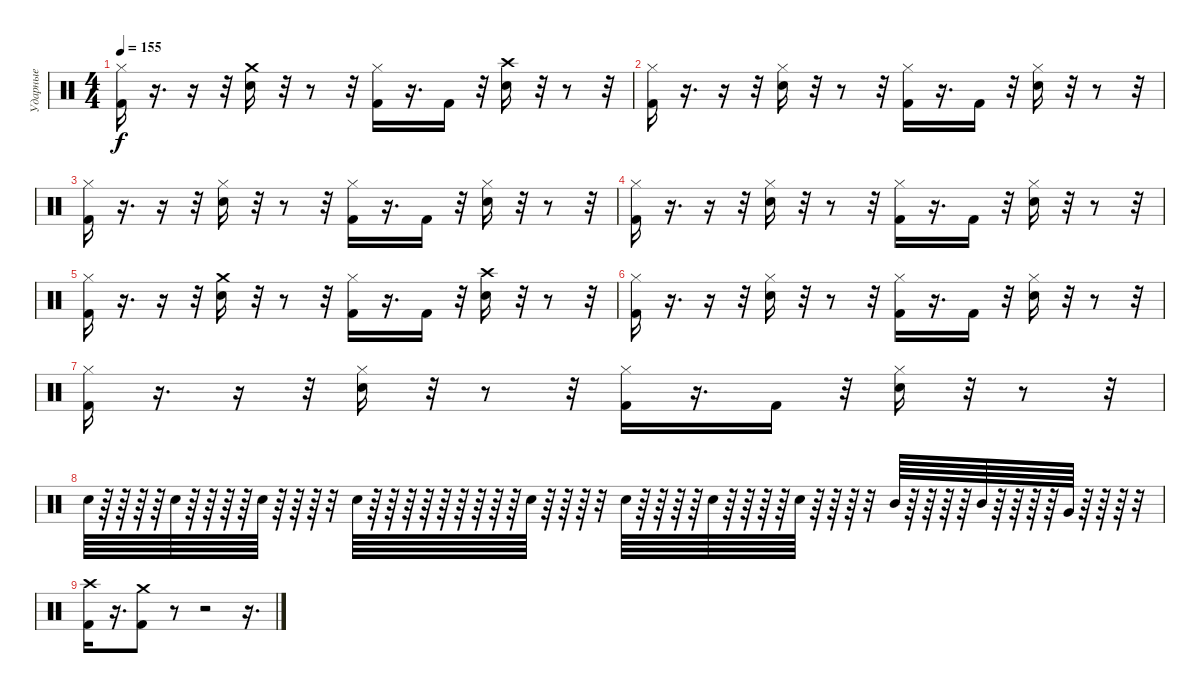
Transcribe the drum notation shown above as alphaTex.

\track ("Ударные" "Ударные") {instrument percussion}
\staff {score}
\articulation defaults
\ts (4 4)
\tempo 155
\clef neutral
\ks c
("Hi-Hat (closed)" "Kick (hit) 2").16{dy f} r.16{d} r.16 r.32 ("Snare (hit) 2" "Crash medium (hit)").16 r.32 r.8 r.32 ("Hi-Hat (closed)" "Kick (hit) 2").16 r.16{d} "Kick (hit) 2".16 r.32 ("Snare (hit) 2" "Crash high (hit)").16 r.32 r.8 r.32 |
("Hi-Hat (closed)" "Kick (hit) 2").16 r.16{d} r.16 r.32 ("Snare (hit) 2" "Hi-Hat (closed)").16 r.32 r.8 r.32 ("Hi-Hat (closed)" "Kick (hit) 2").16 r.16{d} "Kick (hit) 2".16 r.32 ("Snare (hit) 2" "Hi-Hat (closed)").16 r.32 r.8 r.32 |
("Hi-Hat (closed)" "Kick (hit) 2").16 r.16{d} r.16 r.32 ("Snare (hit) 2" "Hi-Hat (closed)").16 r.32 r.8 r.32 ("Hi-Hat (closed)" "Kick (hit) 2").16 r.16{d} "Kick (hit) 2".16 r.32 ("Snare (hit) 2" "Hi-Hat (closed)").16 r.32 r.8 r.32 |
("Hi-Hat (closed)" "Kick (hit) 2").16 r.16{d} r.16 r.32 ("Snare (hit) 2" "Hi-Hat (closed)").16 r.32 r.8 r.32 ("Hi-Hat (closed)" "Kick (hit) 2").16 r.16{d} "Kick (hit) 2".16 r.32 ("Snare (hit) 2" "Hi-Hat (closed)").16 r.32 r.8 r.32 |
("Hi-Hat (closed)" "Kick (hit) 2").16 r.16{d} r.16 r.32 ("Snare (hit) 2" "Crash medium (hit)").16 r.32 r.8 r.32 ("Hi-Hat (closed)" "Kick (hit) 2").16 r.16{d} "Kick (hit) 2".16 r.32 ("Snare (hit) 2" "Crash high (hit)").16 r.32 r.8 r.32 |
("Hi-Hat (closed)" "Kick (hit) 2").16 r.16{d} r.16 r.32 ("Snare (hit) 2" "Hi-Hat (closed)").16 r.32 r.8 r.32 ("Hi-Hat (closed)" "Kick (hit) 2").16 r.16{d} "Kick (hit) 2".16 r.32 ("Snare (hit) 2" "Hi-Hat (closed)").16 r.32 r.8 r.32 |
("Hi-Hat (closed)" "Kick (hit) 2").16 r.16{d} r.16 r.32 ("Snare (hit) 2" "Hi-Hat (closed)").16 r.32 r.8 r.32 ("Hi-Hat (closed)" "Kick (hit) 2").16 r.16{d} "Kick (hit) 2".16 r.32 ("Snare (hit) 2" "Hi-Hat (closed)").16 r.32 r.8 r.32 |
"Electric Snare (hit)".64 r.64 r.64 r.64 r.64 "Electric Snare (hit)".64 r.64 r.64 r.64 r.64 "Snare (hit) 2".64 r.64 r.64 r.64 r.32 "Electric Snare (hit)".64 r.64 r.64 r.64 r.64 r.64 r.64 r.64 r.64 r.64 "Electric Snare (hit)".64 r.64 r.64 r.64 r.32 "Electric Snare (hit)".64 r.64 r.64 r.64 r.64 "Electric Snare (hit)".64 r.64 r.64 r.64 r.64 "Electric Snare (hit)".64 r.64 r.64 r.64 r.32 "Mid Tom (hit)".64 r.64 r.64 r.64 r.64 "Mid Tom (hit)".64 r.64 r.64 r.64 r.64 "Very Low Tom (hit)".64 r.64 r.64 r.64 r.32 |
("Crash high (hit)" "Kick (hit) 2").16 r.16{d} ("Crash medium (hit)" "Kick (hit) 2").8 r.8 r.2 r.16{d}
